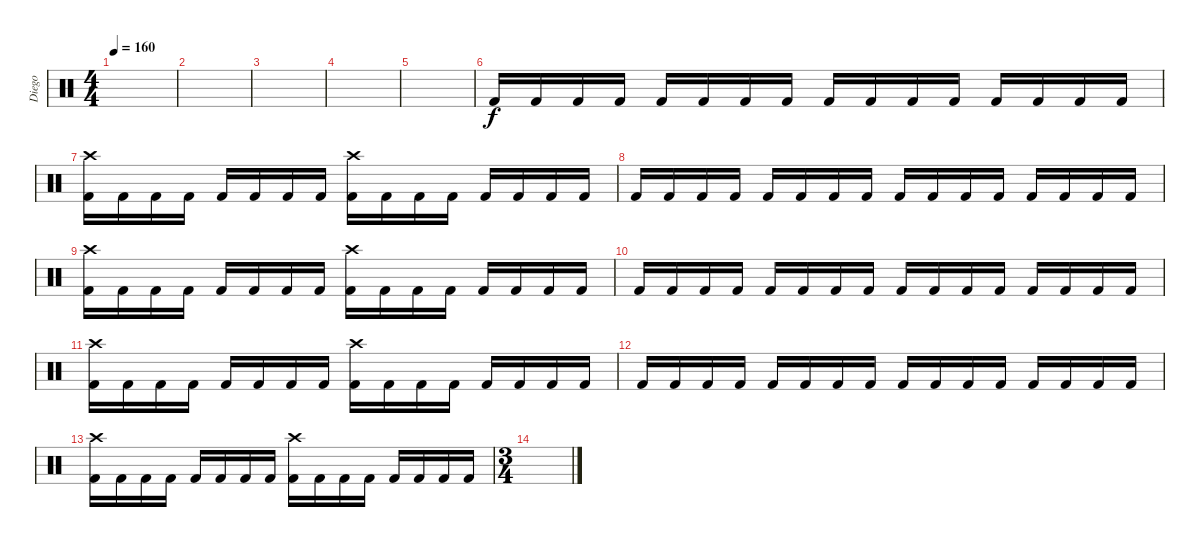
\track ("Diego" "Diego") {instrument percussion}
\staff {score}
\articulation defaults
\ts (4 4)
\tempo 160
\clef neutral
\ks c
|
|
|
|
|
"Kick (hit) 2".16 "Kick (hit) 2".16 "Kick (hit) 2".16 "Kick (hit) 2".16 "Kick (hit) 2".16 "Kick (hit) 2".16 "Kick (hit) 2".16 "Kick (hit) 2".16 "Kick (hit) 2".16 "Kick (hit) 2".16 "Kick (hit) 2".16 "Kick (hit) 2".16 "Kick (hit) 2".16 "Kick (hit) 2".16 "Kick (hit) 2".16 "Kick (hit) 2".16 |
("Crash high (hit)" "Kick (hit) 2").16 "Kick (hit) 2".16 "Kick (hit) 2".16 "Kick (hit) 2".16 "Kick (hit) 2".16 "Kick (hit) 2".16 "Kick (hit) 2".16 "Kick (hit) 2".16 ("Crash high (hit)" "Kick (hit) 2").16 "Kick (hit) 2".16 "Kick (hit) 2".16 "Kick (hit) 2".16 "Kick (hit) 2".16 "Kick (hit) 2".16 "Kick (hit) 2".16 "Kick (hit) 2".16 |
"Kick (hit) 2".16 "Kick (hit) 2".16 "Kick (hit) 2".16 "Kick (hit) 2".16 "Kick (hit) 2".16 "Kick (hit) 2".16 "Kick (hit) 2".16 "Kick (hit) 2".16 "Kick (hit) 2".16 "Kick (hit) 2".16 "Kick (hit) 2".16 "Kick (hit) 2".16 "Kick (hit) 2".16 "Kick (hit) 2".16 "Kick (hit) 2".16 "Kick (hit) 2".16 |
("Crash high (hit)" "Kick (hit) 2").16 "Kick (hit) 2".16 "Kick (hit) 2".16 "Kick (hit) 2".16 "Kick (hit) 2".16 "Kick (hit) 2".16 "Kick (hit) 2".16 "Kick (hit) 2".16 ("Crash high (hit)" "Kick (hit) 2").16 "Kick (hit) 2".16 "Kick (hit) 2".16 "Kick (hit) 2".16 "Kick (hit) 2".16 "Kick (hit) 2".16 "Kick (hit) 2".16 "Kick (hit) 2".16 |
"Kick (hit) 2".16 "Kick (hit) 2".16 "Kick (hit) 2".16 "Kick (hit) 2".16 "Kick (hit) 2".16 "Kick (hit) 2".16 "Kick (hit) 2".16 "Kick (hit) 2".16 "Kick (hit) 2".16 "Kick (hit) 2".16 "Kick (hit) 2".16 "Kick (hit) 2".16 "Kick (hit) 2".16 "Kick (hit) 2".16 "Kick (hit) 2".16 "Kick (hit) 2".16 |
("Crash high (hit)" "Kick (hit) 2").16 "Kick (hit) 2".16 "Kick (hit) 2".16 "Kick (hit) 2".16 "Kick (hit) 2".16 "Kick (hit) 2".16 "Kick (hit) 2".16 "Kick (hit) 2".16 ("Crash high (hit)" "Kick (hit) 2").16 "Kick (hit) 2".16 "Kick (hit) 2".16 "Kick (hit) 2".16 "Kick (hit) 2".16 "Kick (hit) 2".16 "Kick (hit) 2".16 "Kick (hit) 2".16 |
"Kick (hit) 2".16 "Kick (hit) 2".16 "Kick (hit) 2".16 "Kick (hit) 2".16 "Kick (hit) 2".16 "Kick (hit) 2".16 "Kick (hit) 2".16 "Kick (hit) 2".16 "Kick (hit) 2".16 "Kick (hit) 2".16 "Kick (hit) 2".16 "Kick (hit) 2".16 "Kick (hit) 2".16 "Kick (hit) 2".16 "Kick (hit) 2".16 "Kick (hit) 2".16 |
("Crash high (hit)" "Kick (hit) 2").16 "Kick (hit) 2".16 "Kick (hit) 2".16 "Kick (hit) 2".16 "Kick (hit) 2".16 "Kick (hit) 2".16 "Kick (hit) 2".16 "Kick (hit) 2".16 ("Crash high (hit)" "Kick (hit) 2").16 "Kick (hit) 2".16 "Kick (hit) 2".16 "Kick (hit) 2".16 "Kick (hit) 2".16 "Kick (hit) 2".16 "Kick (hit) 2".16 "Kick (hit) 2".16 |
\ts (3 4)
